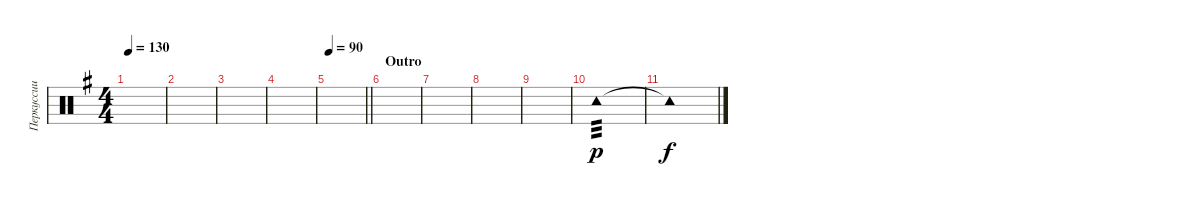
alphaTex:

\track ("Перкуссии" "Перкуссии") {instrument percussion}
\staff {score}
\articulation defaults
\ts (4 4)
\tempo 130
\clef neutral
\ks eminor
|
|
|
|
\tempo 90
\barLineRight lightlight
|
\section ("" "Outro")
|
|
|
|
"Tambourine (hit)".1{tp 3 dy p} |
"Tambourine (hit)"{t}.1{dy f}
